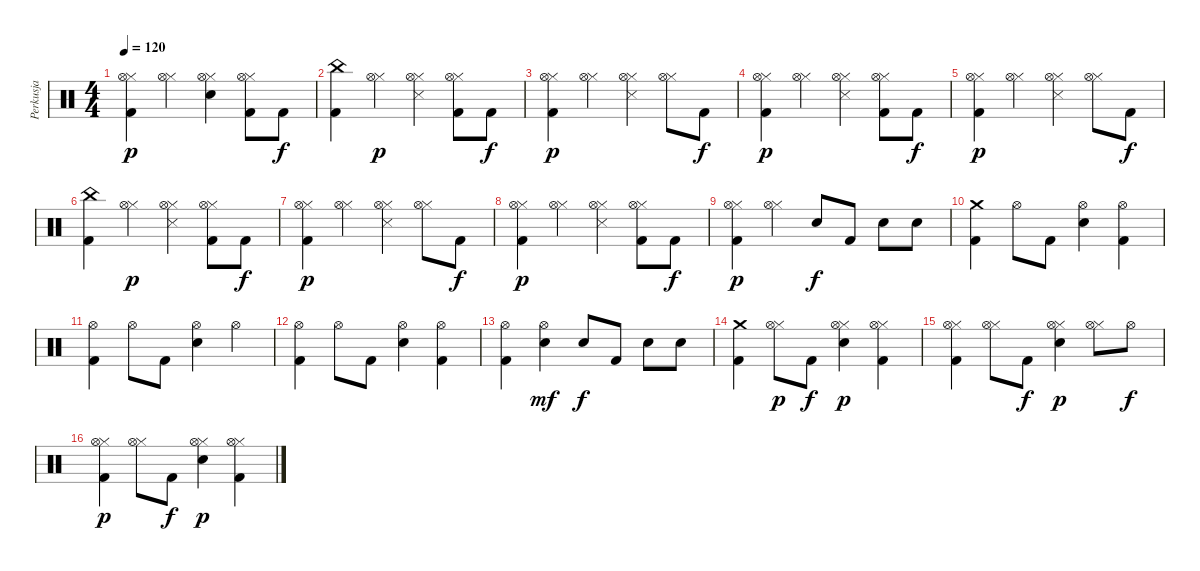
\track ("Perkusja" "Perkusja") {instrument percussion}
\staff {score}
\articulation defaults
\ts (4 4)
\tempo 120
\clef neutral
\ks c
("Kick (hit) 2" "Hi-Hat (closed)" "Hi-Hat (open)").4{dy p} ("Hi-Hat (closed)" "Hi-Hat (open)").4 ("Electric Snare (hit)" "Hi-Hat (closed)" "Hi-Hat (open)").4 ("Kick (hit) 2" "Hi-Hat (closed)" "Hi-Hat (open)").8 "Kick (hit) 2".8{dy f} |
("Kick (hit) 2" "China (hit)").4 ("Hi-Hat (closed)" "Hi-Hat (open)").4{dy p} ("Metronome (hit)" "Hi-Hat (closed)" "Hi-Hat (open)").4 ("Kick (hit) 2" "Hi-Hat (closed)" "Hi-Hat (open)").8 "Kick (hit) 2".8{dy f} |
("Kick (hit) 2" "Hi-Hat (closed)" "Hi-Hat (open)").4{dy p} ("Hi-Hat (closed)" "Hi-Hat (open)").4 ("Metronome (hit)" "Hi-Hat (closed)" "Hi-Hat (open)").4 ("Hi-Hat (closed)" "Hi-Hat (open)").8 "Kick (hit) 2".8{dy f} |
("Kick (hit) 2" "Hi-Hat (closed)" "Hi-Hat (open)").4{dy p} ("Hi-Hat (closed)" "Hi-Hat (open)").4 ("Metronome (hit)" "Hi-Hat (closed)" "Hi-Hat (open)").4 ("Kick (hit) 2" "Hi-Hat (closed)" "Hi-Hat (open)").8 "Kick (hit) 2".8{dy f} |
("Kick (hit) 2" "Hi-Hat (closed)" "Hi-Hat (open)").4{dy p} ("Hi-Hat (closed)" "Hi-Hat (open)").4 ("Metronome (hit)" "Hi-Hat (closed)" "Hi-Hat (open)").4 ("Hi-Hat (closed)" "Hi-Hat (open)").8 "Kick (hit) 2".8{dy f} |
("Kick (hit) 2" "China (hit)").4 ("Hi-Hat (closed)" "Hi-Hat (open)").4{dy p} ("Metronome (hit)" "Hi-Hat (closed)" "Hi-Hat (open)").4 ("Kick (hit) 2" "Hi-Hat (closed)" "Hi-Hat (open)").8 "Kick (hit) 2".8{dy f} |
("Kick (hit) 2" "Hi-Hat (closed)" "Hi-Hat (open)").4{dy p} ("Hi-Hat (closed)" "Hi-Hat (open)").4 ("Metronome (hit)" "Hi-Hat (closed)" "Hi-Hat (open)").4 ("Hi-Hat (closed)" "Hi-Hat (open)").8 "Kick (hit) 2".8{dy f} |
("Kick (hit) 2" "Hi-Hat (closed)" "Hi-Hat (open)").4{dy p} ("Hi-Hat (closed)" "Hi-Hat (open)").4 ("Metronome (hit)" "Hi-Hat (closed)" "Hi-Hat (open)").4 ("Kick (hit) 2" "Hi-Hat (closed)" "Hi-Hat (open)").8 "Kick (hit) 2".8{dy f} |
("Kick (hit) 2" "Hi-Hat (closed)" "Hi-Hat (open)").4{dy p} ("Hi-Hat (closed)" "Hi-Hat (open)").4 "Electric Snare (hit)".8{dy f} "Kick (hit) 2".8 "Electric Snare (hit)".8 "Electric Snare (hit)".8 |
("Kick (hit) 2" "Crash medium (hit)").4 "Hi-Hat (open)".8 "Kick (hit) 2".8 ("Electric Snare (hit)" "Hi-Hat (open)").4 ("Kick (hit) 2" "Hi-Hat (open)").4 |
("Kick (hit) 2" "Hi-Hat (open)").4 "Hi-Hat (open)".8 "Kick (hit) 2".8 ("Electric Snare (hit)" "Hi-Hat (open)").4 "Hi-Hat (open)".4 |
("Kick (hit) 2" "Hi-Hat (open)").4 "Hi-Hat (open)".8 "Kick (hit) 2".8 ("Electric Snare (hit)" "Hi-Hat (open)").4 ("Kick (hit) 2" "Hi-Hat (open)").4 |
("Kick (hit) 2" "Hi-Hat (open)").4 ("Electric Snare (hit)" "Hi-Hat (open)").4{dy mf} "Electric Snare (hit)".8{dy f} "Kick (hit) 2".8 "Electric Snare (hit)".8 "Electric Snare (hit)".8 |
("Kick (hit) 2" "Crash medium (hit)").4 ("Hi-Hat (closed)" "Hi-Hat (open)").8{dy p} "Kick (hit) 2".8{dy f} ("Electric Snare (hit)" "Hi-Hat (closed)" "Hi-Hat (open)").4{dy p} ("Kick (hit) 2" "Hi-Hat (closed)" "Hi-Hat (open)").4 |
("Kick (hit) 2" "Hi-Hat (closed)" "Hi-Hat (open)").4 ("Hi-Hat (closed)" "Hi-Hat (open)").8 "Kick (hit) 2".8{dy f} ("Electric Snare (hit)" "Hi-Hat (closed)" "Hi-Hat (open)").4{dy p} ("Hi-Hat (closed)" "Hi-Hat (open)").8 "Hi-Hat (open)".8{dy f} |
("Kick (hit) 2" "Hi-Hat (closed)" "Hi-Hat (open)").4{dy p} ("Hi-Hat (closed)" "Hi-Hat (open)").8 "Kick (hit) 2".8{dy f} ("Electric Snare (hit)" "Hi-Hat (closed)" "Hi-Hat (open)").4{dy p} ("Kick (hit) 2" "Hi-Hat (closed)" "Hi-Hat (open)").4
